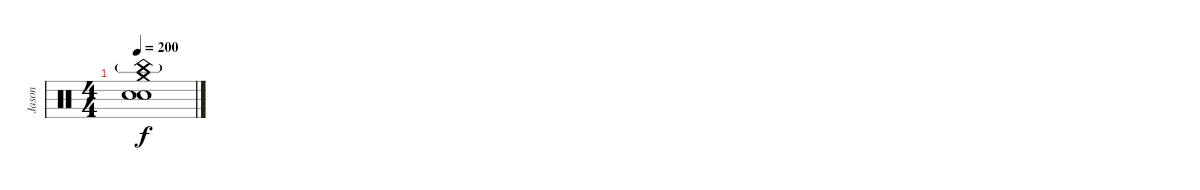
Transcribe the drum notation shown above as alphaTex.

\track ("Jason" "Jason") {instrument percussion}
\staff {score}
\articulation defaults
\ts (4 4)
\tempo 200
\clef neutral
\ks c
("China (hit)"{g} "Crash medium (hit)" "Electric Snare (hit)" "Snare (hit) 2").1{dy f}
